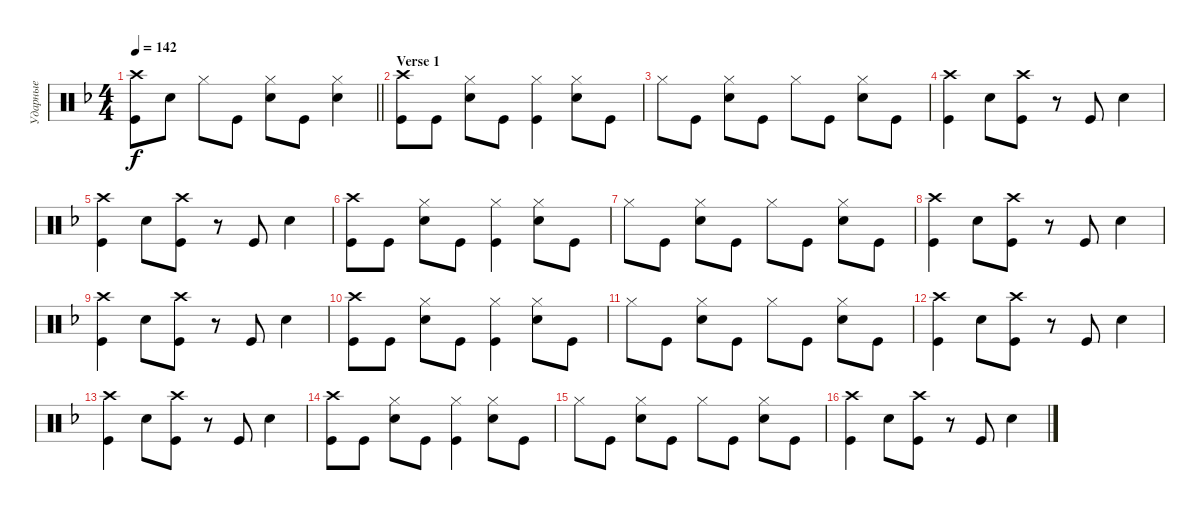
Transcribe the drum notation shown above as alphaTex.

\track ("Ударные" "Ударные") {instrument percussion}
\staff {score}
\articulation defaults
\ts (4 4)
\tempo 142
\clef neutral
\barLineRight lightlight
\ks dminor
("Kick (hit)" "Crash high (hit)").8{dy f} "Snare (hit) 2".8 "Hi-Hat (closed)".8 "Kick (hit)".8 ("Snare (hit) 2" "Hi-Hat (closed)").8 "Kick (hit)".8 ("Snare (hit) 2" "Hi-Hat (closed)").4 |
\section ("" "Verse 1")
("Kick (hit)" "Crash high (hit)").8 "Kick (hit)".8 ("Snare (hit) 2" "Hi-Hat (closed)").8 "Kick (hit)".8 ("Kick (hit)" "Hi-Hat (closed)").4 ("Snare (hit) 2" "Hi-Hat (closed)").8 "Kick (hit)".8 |
"Hi-Hat (closed)".8 "Kick (hit)".8 ("Snare (hit) 2" "Hi-Hat (closed)").8 "Kick (hit)".8 "Hi-Hat (closed)".8 "Kick (hit)".8 ("Snare (hit) 2" "Hi-Hat (closed)").8 "Kick (hit)".8 |
("Kick (hit)" "Crash high (hit)").4 "Snare (hit) 2".8 ("Kick (hit)" "Crash high (hit)").8 r.8 "Kick (hit)".8 "Snare (hit) 2".4 |
("Kick (hit)" "Crash high (hit)").4 "Snare (hit) 2".8 ("Kick (hit)" "Crash high (hit)").8 r.8 "Kick (hit)".8 "Snare (hit) 2".4 |
("Kick (hit)" "Crash high (hit)").8 "Kick (hit)".8 ("Snare (hit) 2" "Hi-Hat (closed)").8 "Kick (hit)".8 ("Kick (hit)" "Hi-Hat (closed)").4 ("Snare (hit) 2" "Hi-Hat (closed)").8 "Kick (hit)".8 |
"Hi-Hat (closed)".8 "Kick (hit)".8 ("Snare (hit) 2" "Hi-Hat (closed)").8 "Kick (hit)".8 "Hi-Hat (closed)".8 "Kick (hit)".8 ("Snare (hit) 2" "Hi-Hat (closed)").8 "Kick (hit)".8 |
("Kick (hit)" "Crash high (hit)").4 "Snare (hit) 2".8 ("Kick (hit)" "Crash high (hit)").8 r.8 "Kick (hit)".8 "Snare (hit) 2".4 |
("Kick (hit)" "Crash high (hit)").4 "Snare (hit) 2".8 ("Kick (hit)" "Crash high (hit)").8 r.8 "Kick (hit)".8 "Snare (hit) 2".4 |
("Kick (hit)" "Crash high (hit)").8 "Kick (hit)".8 ("Snare (hit) 2" "Hi-Hat (closed)").8 "Kick (hit)".8 ("Kick (hit)" "Hi-Hat (closed)").4 ("Snare (hit) 2" "Hi-Hat (closed)").8 "Kick (hit)".8 |
"Hi-Hat (closed)".8 "Kick (hit)".8 ("Snare (hit) 2" "Hi-Hat (closed)").8 "Kick (hit)".8 "Hi-Hat (closed)".8 "Kick (hit)".8 ("Snare (hit) 2" "Hi-Hat (closed)").8 "Kick (hit)".8 |
("Kick (hit)" "Crash high (hit)").4 "Snare (hit) 2".8 ("Kick (hit)" "Crash high (hit)").8 r.8 "Kick (hit)".8 "Snare (hit) 2".4 |
("Kick (hit)" "Crash high (hit)").4 "Snare (hit) 2".8 ("Kick (hit)" "Crash high (hit)").8 r.8 "Kick (hit)".8 "Snare (hit) 2".4 |
("Kick (hit)" "Crash high (hit)").8 "Kick (hit)".8 ("Snare (hit) 2" "Hi-Hat (closed)").8 "Kick (hit)".8 ("Kick (hit)" "Hi-Hat (closed)").4 ("Snare (hit) 2" "Hi-Hat (closed)").8 "Kick (hit)".8 |
"Hi-Hat (closed)".8 "Kick (hit)".8 ("Snare (hit) 2" "Hi-Hat (closed)").8 "Kick (hit)".8 "Hi-Hat (closed)".8 "Kick (hit)".8 ("Snare (hit) 2" "Hi-Hat (closed)").8 "Kick (hit)".8 |
("Kick (hit)" "Crash high (hit)").4 "Snare (hit) 2".8 ("Kick (hit)" "Crash high (hit)").8 r.8 "Kick (hit)".8 "Snare (hit) 2".4
